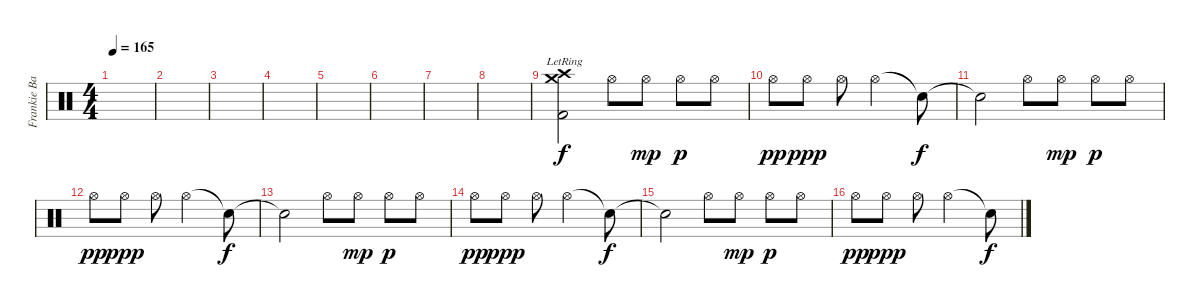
\track ("Frankie Banali/Drums" "Frankie Ba") {instrument percussion}
\staff {score}
\articulation defaults
\ts (4 4)
\tempo 165
\clef neutral
\ks c
|
|
|
|
|
|
|
|
("Crash high (hit)"{lr} "Crash medium (hit)"{lr} "Kick (hit) 2").2 "Hi-Hat (open)".8 "Hi-Hat (open)".8{dy mp} "Hi-Hat (open)".8{dy p} "Hi-Hat (open)".8 |
"Hi-Hat (open)".8{dy pp} "Hi-Hat (open)".8{dy ppp} "Hi-Hat (open)".8 "Hi-Hat (open)".2 "Snare (hit)"{t}.8{dy f} |
"Snare (hit)"{t}.2 "Hi-Hat (open)".8 "Hi-Hat (open)".8{dy mp} "Hi-Hat (open)".8{dy p} "Hi-Hat (open)".8 |
"Hi-Hat (open)".8{dy pp} "Hi-Hat (open)".8{dy ppp} "Hi-Hat (open)".8 "Hi-Hat (open)".2 "Snare (hit)"{t}.8{dy f} |
"Snare (hit)"{t}.2 "Hi-Hat (open)".8 "Hi-Hat (open)".8{dy mp} "Hi-Hat (open)".8{dy p} "Hi-Hat (open)".8 |
"Hi-Hat (open)".8{dy pp} "Hi-Hat (open)".8{dy ppp} "Hi-Hat (open)".8 "Hi-Hat (open)".2 "Snare (hit)"{t}.8{dy f} |
"Snare (hit)"{t}.2 "Hi-Hat (open)".8 "Hi-Hat (open)".8{dy mp} "Hi-Hat (open)".8{dy p} "Hi-Hat (open)".8 |
"Hi-Hat (open)".8{dy pp} "Hi-Hat (open)".8{dy ppp} "Hi-Hat (open)".8 "Hi-Hat (open)".2 "Snare (hit)"{t}.8{dy f}
